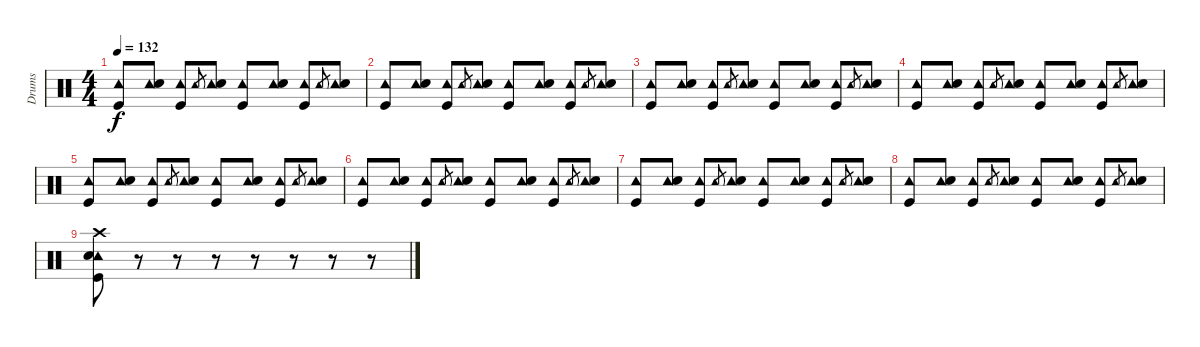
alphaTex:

\track ("Drums" "Drums") {instrument percussion}
\staff {score}
\articulation defaults
\ts (4 4)
\tempo 132
\clef neutral
\ks c
("Tambourine (hit)" "Kick (hit)").8{dy f} ("Tambourine (hit)" "Snare (hit) 2").8 ("Tambourine (hit)" "Kick (hit)").8 "Tambourine (hit)".8{gr} ("Tambourine (hit)" "Snare (hit) 2").8 ("Tambourine (hit)" "Kick (hit)").8 ("Tambourine (hit)" "Snare (hit) 2").8 ("Tambourine (hit)" "Kick (hit)").8 "Tambourine (hit)".8{gr} ("Tambourine (hit)" "Snare (hit) 2").8 |
("Tambourine (hit)" "Kick (hit)").8 ("Tambourine (hit)" "Snare (hit) 2").8 ("Tambourine (hit)" "Kick (hit)").8 "Tambourine (hit)".8{gr} ("Tambourine (hit)" "Snare (hit) 2").8 ("Tambourine (hit)" "Kick (hit)").8 ("Tambourine (hit)" "Snare (hit) 2").8 ("Tambourine (hit)" "Kick (hit)").8 "Tambourine (hit)".8{gr} ("Tambourine (hit)" "Snare (hit) 2").8 |
("Tambourine (hit)" "Kick (hit)").8 ("Tambourine (hit)" "Snare (hit) 2").8 ("Tambourine (hit)" "Kick (hit)").8 "Tambourine (hit)".8{gr} ("Tambourine (hit)" "Snare (hit) 2").8 ("Tambourine (hit)" "Kick (hit)").8 ("Tambourine (hit)" "Snare (hit) 2").8 ("Tambourine (hit)" "Kick (hit)").8 "Tambourine (hit)".8{gr} ("Tambourine (hit)" "Snare (hit) 2").8 |
("Tambourine (hit)" "Kick (hit)").8 ("Tambourine (hit)" "Snare (hit) 2").8 ("Tambourine (hit)" "Kick (hit)").8 "Tambourine (hit)".8{gr} ("Tambourine (hit)" "Snare (hit) 2").8 ("Tambourine (hit)" "Kick (hit)").8 ("Tambourine (hit)" "Snare (hit) 2").8 ("Tambourine (hit)" "Kick (hit)").8 "Tambourine (hit)".8{gr} ("Tambourine (hit)" "Snare (hit) 2").8 |
("Tambourine (hit)" "Kick (hit)").8 ("Tambourine (hit)" "Snare (hit) 2").8 ("Tambourine (hit)" "Kick (hit)").8 "Tambourine (hit)".8{gr} ("Tambourine (hit)" "Snare (hit) 2").8 ("Tambourine (hit)" "Kick (hit)").8 ("Tambourine (hit)" "Snare (hit) 2").8 ("Tambourine (hit)" "Kick (hit)").8 "Tambourine (hit)".8{gr} ("Tambourine (hit)" "Snare (hit) 2").8 |
("Tambourine (hit)" "Kick (hit)").8 ("Tambourine (hit)" "Snare (hit) 2").8 ("Tambourine (hit)" "Kick (hit)").8 "Tambourine (hit)".8{gr} ("Tambourine (hit)" "Snare (hit) 2").8 ("Tambourine (hit)" "Kick (hit)").8 ("Tambourine (hit)" "Snare (hit) 2").8 ("Tambourine (hit)" "Kick (hit)").8 "Tambourine (hit)".8{gr} ("Tambourine (hit)" "Snare (hit) 2").8 |
("Tambourine (hit)" "Kick (hit)").8 ("Tambourine (hit)" "Snare (hit) 2").8 ("Tambourine (hit)" "Kick (hit)").8 "Tambourine (hit)".8{gr} ("Tambourine (hit)" "Snare (hit) 2").8 ("Tambourine (hit)" "Kick (hit)").8 ("Tambourine (hit)" "Snare (hit) 2").8 ("Tambourine (hit)" "Kick (hit)").8 "Tambourine (hit)".8{gr} ("Tambourine (hit)" "Snare (hit) 2").8 |
("Tambourine (hit)" "Kick (hit)").8 ("Tambourine (hit)" "Snare (hit) 2").8 ("Tambourine (hit)" "Kick (hit)").8 "Tambourine (hit)".8{gr} ("Tambourine (hit)" "Snare (hit) 2").8 ("Tambourine (hit)" "Kick (hit)").8 ("Tambourine (hit)" "Snare (hit) 2").8 ("Tambourine (hit)" "Kick (hit)").8 "Tambourine (hit)".8{gr} ("Tambourine (hit)" "Snare (hit) 2").8 |
("Tambourine (hit)" "Crash high (hit)" "Snare (hit) 2" "Kick (hit)").8 r.8 r.8 r.8 r.8 r.8 r.8 r.8
